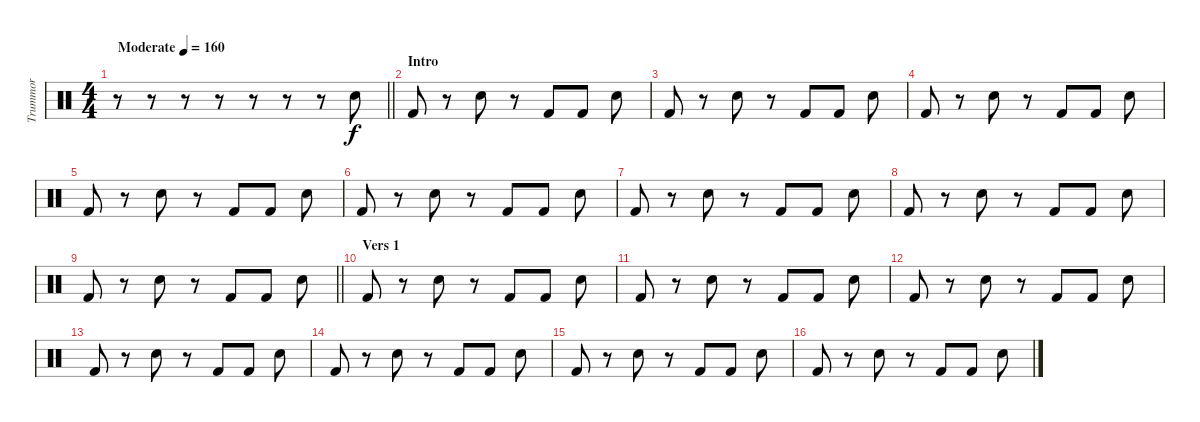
\track ("Trummor" "Trummor") {instrument percussion}
\staff {score}
\articulation defaults
\ts (4 4)
\tempo (160 "Moderate")
\clef neutral
\barLineRight lightlight
\ks c
r.8{dy f} r.8 r.8 r.8 r.8 r.8 r.8 "Snare (hit) 2".8 |
\section ("" "Intro")
"Kick (hit) 2".8 r.8 "Snare (hit) 2".8 r.8 "Kick (hit) 2".8 "Kick (hit) 2".8 "Snare (hit) 2".8 |
"Kick (hit) 2".8 r.8 "Snare (hit) 2".8 r.8 "Kick (hit) 2".8 "Kick (hit) 2".8 "Snare (hit) 2".8 |
"Kick (hit) 2".8 r.8 "Snare (hit) 2".8 r.8 "Kick (hit) 2".8 "Kick (hit) 2".8 "Snare (hit) 2".8 |
"Kick (hit) 2".8 r.8 "Snare (hit) 2".8 r.8 "Kick (hit) 2".8 "Kick (hit) 2".8 "Snare (hit) 2".8 |
"Kick (hit) 2".8 r.8 "Snare (hit) 2".8 r.8 "Kick (hit) 2".8 "Kick (hit) 2".8 "Snare (hit) 2".8 |
"Kick (hit) 2".8 r.8 "Snare (hit) 2".8 r.8 "Kick (hit) 2".8 "Kick (hit) 2".8 "Snare (hit) 2".8 |
"Kick (hit) 2".8 r.8 "Snare (hit) 2".8 r.8 "Kick (hit) 2".8 "Kick (hit) 2".8 "Snare (hit) 2".8 |
\barLineRight lightlight "Kick (hit) 2".8
r.8 "Snare (hit) 2".8 r.8 "Kick (hit) 2".8 "Kick (hit) 2".8 "Snare (hit) 2".8 |
\section ("" "Vers 1")
"Kick (hit) 2".8 r.8 "Snare (hit) 2".8 r.8 "Kick (hit) 2".8 "Kick (hit) 2".8 "Snare (hit) 2".8 |
"Kick (hit) 2".8 r.8 "Snare (hit) 2".8 r.8 "Kick (hit) 2".8 "Kick (hit) 2".8 "Snare (hit) 2".8 |
"Kick (hit) 2".8 r.8 "Snare (hit) 2".8 r.8 "Kick (hit) 2".8 "Kick (hit) 2".8 "Snare (hit) 2".8 |
"Kick (hit) 2".8 r.8 "Snare (hit) 2".8 r.8 "Kick (hit) 2".8 "Kick (hit) 2".8 "Snare (hit) 2".8 |
"Kick (hit) 2".8 r.8 "Snare (hit) 2".8 r.8 "Kick (hit) 2".8 "Kick (hit) 2".8 "Snare (hit) 2".8 |
"Kick (hit) 2".8 r.8 "Snare (hit) 2".8 r.8 "Kick (hit) 2".8 "Kick (hit) 2".8 "Snare (hit) 2".8 |
"Kick (hit) 2".8 r.8 "Snare (hit) 2".8 r.8 "Kick (hit) 2".8 "Kick (hit) 2".8 "Snare (hit) 2".8
